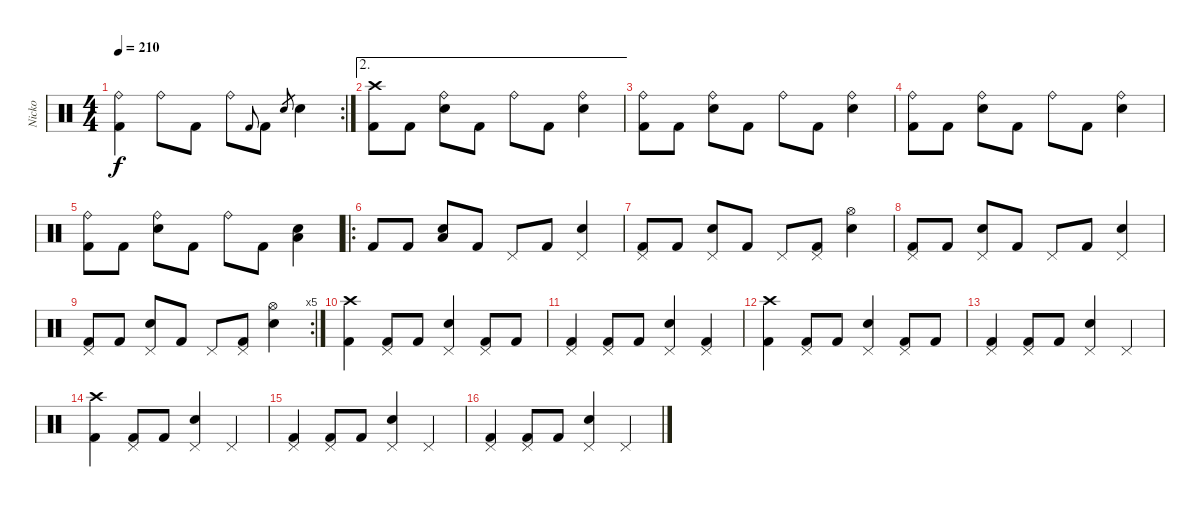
\track ("Nicko" "Nicko") {instrument percussion}
\staff {score}
\articulation defaults
\rc 2
\ts (4 4)
\tempo 210
\clef neutral
\ks c
("Ride (bell)" "Kick (hit) 2").4{dy f} "Ride (bell)".8 "Kick (hit) 2".8 "Ride (bell)".8 "Kick (hit) 2"{h}.8{gr onbeat} "Kick (hit) 2".8 "Electric Snare (hit)".8{gr} "Electric Snare (hit)".4 |
\ae 2
("Crash high (hit)" "Kick (hit) 2").8 "Kick (hit) 2".8 ("Ride (bell)" "Electric Snare (hit)").8 "Kick (hit) 2".8 "Ride (bell)".8 "Kick (hit) 2".8 ("Ride (bell)" "Electric Snare (hit)").4 |
("Ride (bell)" "Kick (hit) 2").8 "Kick (hit) 2".8 ("Ride (bell)" "Electric Snare (hit)").8 "Kick (hit) 2".8 "Ride (bell)".8 "Kick (hit) 2".8 ("Ride (bell)" "Electric Snare (hit)").4 |
("Ride (bell)" "Kick (hit) 2").8 "Kick (hit) 2".8 ("Ride (bell)" "Electric Snare (hit)").8 "Kick (hit) 2".8 "Ride (bell)".8 "Kick (hit) 2".8 ("Ride (bell)" "Electric Snare (hit)").4 |
("Ride (bell)" "Kick (hit) 2").8 "Kick (hit) 2".8 ("Ride (bell)" "Electric Snare (hit)").8 "Kick (hit) 2".8 "Ride (bell)".8 "Kick (hit) 2".8 ("Electric Snare (hit)" "Low Floor Tom (hit)").4 |
\ro "Kick (hit) 2".8 "Kick (hit) 2".8
("Electric Snare (hit)" "Low Floor Tom (hit)").8 "Kick (hit) 2".8 "Pedal Hi-Hat (hit)".8 "Kick (hit) 2".8 ("Pedal Hi-Hat (hit)" "Electric Snare (hit)").4 |
("Pedal Hi-Hat (hit)" "Kick (hit) 2").8 "Kick (hit) 2".8 ("Pedal Hi-Hat (hit)" "Electric Snare (hit)").8 "Kick (hit) 2".8 "Pedal Hi-Hat (hit)".8 ("Pedal Hi-Hat (hit)" "Kick (hit) 2").8 ("Hi-Hat (open)" "Electric Snare (hit)").4 |
("Pedal Hi-Hat (hit)" "Kick (hit) 2").8 "Kick (hit) 2".8 ("Pedal Hi-Hat (hit)" "Electric Snare (hit)").8 "Kick (hit) 2".8 "Pedal Hi-Hat (hit)".8 "Kick (hit) 2".8 ("Pedal Hi-Hat (hit)" "Electric Snare (hit)").4 |
\rc 5
("Pedal Hi-Hat (hit)" "Kick (hit) 2").8 "Kick (hit) 2".8 ("Pedal Hi-Hat (hit)" "Electric Snare (hit)").8 "Kick (hit) 2".8 "Pedal Hi-Hat (hit)".8 ("Pedal Hi-Hat (hit)" "Kick (hit) 2").8 ("Hi-Hat (open)" "Electric Snare (hit)").4 |
("Crash high (hit)" "Kick (hit) 2").4 ("Pedal Hi-Hat (hit)" "Kick (hit) 2").8 "Kick (hit) 2".8 ("Pedal Hi-Hat (hit)" "Electric Snare (hit)").4 ("Pedal Hi-Hat (hit)" "Kick (hit) 2").8 "Kick (hit) 2".8 |
("Pedal Hi-Hat (hit)" "Kick (hit) 2").4 ("Pedal Hi-Hat (hit)" "Kick (hit) 2").8 "Kick (hit) 2".8 ("Pedal Hi-Hat (hit)" "Electric Snare (hit)").4 ("Pedal Hi-Hat (hit)" "Kick (hit) 2").4 |
("Crash high (hit)" "Kick (hit) 2").4 ("Pedal Hi-Hat (hit)" "Kick (hit) 2").8 "Kick (hit) 2".8 ("Pedal Hi-Hat (hit)" "Electric Snare (hit)").4 ("Pedal Hi-Hat (hit)" "Kick (hit) 2").8 "Kick (hit) 2".8 |
("Pedal Hi-Hat (hit)" "Kick (hit) 2").4 ("Pedal Hi-Hat (hit)" "Kick (hit) 2").8 "Kick (hit) 2".8 ("Pedal Hi-Hat (hit)" "Electric Snare (hit)").4 "Pedal Hi-Hat (hit)".4 |
("Crash high (hit)" "Kick (hit) 2").4 ("Pedal Hi-Hat (hit)" "Kick (hit) 2").8 "Kick (hit) 2".8 ("Pedal Hi-Hat (hit)" "Electric Snare (hit)").4 "Pedal Hi-Hat (hit)".4 |
("Pedal Hi-Hat (hit)" "Kick (hit) 2").4 ("Pedal Hi-Hat (hit)" "Kick (hit) 2").8 "Kick (hit) 2".8 ("Pedal Hi-Hat (hit)" "Electric Snare (hit)").4 "Pedal Hi-Hat (hit)".4 |
("Pedal Hi-Hat (hit)" "Kick (hit) 2").4 ("Pedal Hi-Hat (hit)" "Kick (hit) 2").8 "Kick (hit) 2".8 ("Pedal Hi-Hat (hit)" "Electric Snare (hit)").4 "Pedal Hi-Hat (hit)".4
